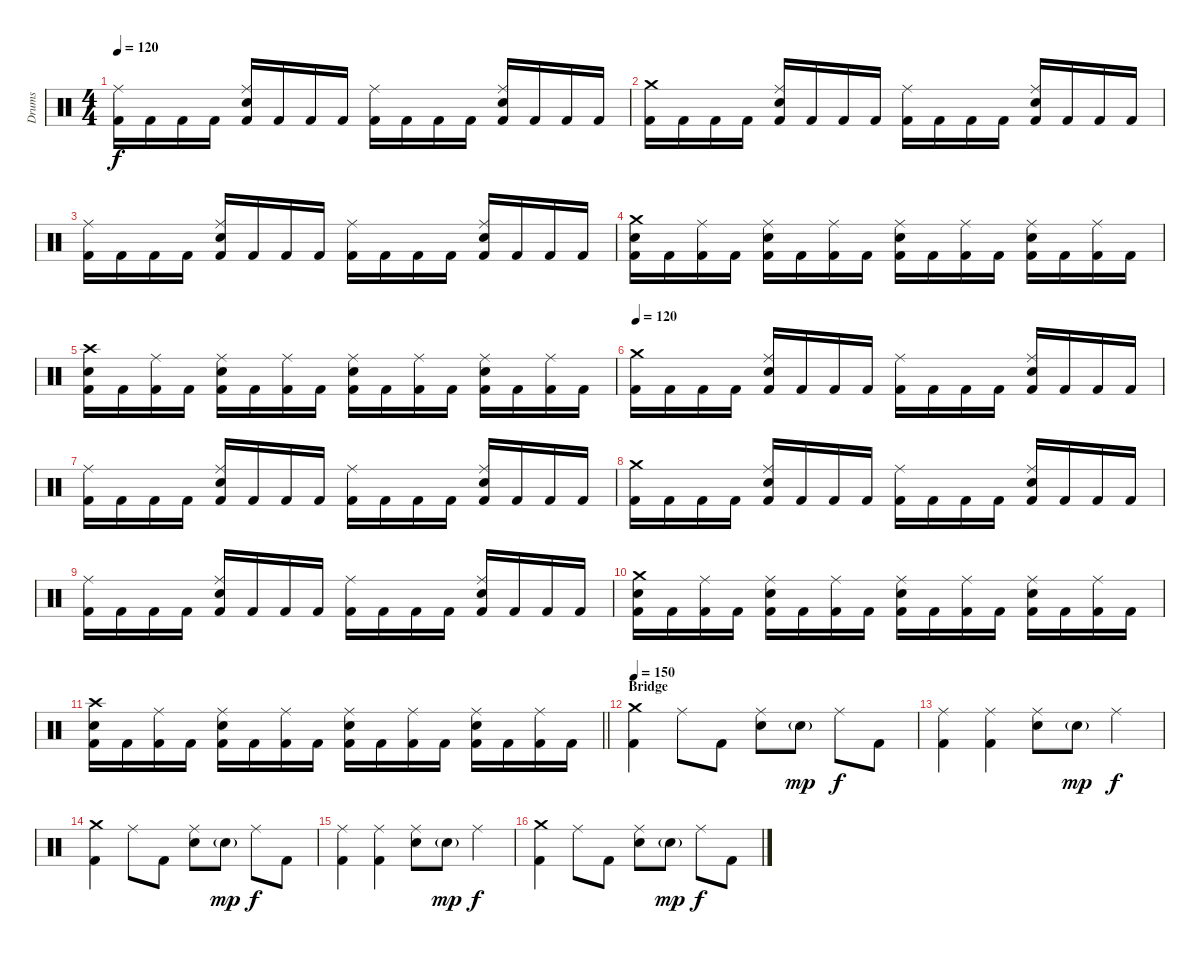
\track ("Drums" "Drums") {instrument percussion}
\staff {score}
\articulation defaults
\ts (4 4)
\tempo 120
\clef neutral
\ks c
("Kick (hit) 2" "Ride (middle)").16{dy f} "Kick (hit) 2".16 "Kick (hit) 2".16 "Kick (hit) 2".16 ("Kick (hit) 2" "Snare (hit) 2" "Ride (middle)").16 "Kick (hit) 2".16 "Kick (hit) 2".16 "Kick (hit) 2".16 ("Kick (hit) 2" "Ride (middle)").16 "Kick (hit) 2".16 "Kick (hit) 2".16 "Kick (hit) 2".16 ("Kick (hit) 2" "Snare (hit) 2" "Ride (middle)").16 "Kick (hit) 2".16 "Kick (hit) 2".16 "Kick (hit) 2".16 |
("Kick (hit) 2" "Crash medium (hit)").16 "Kick (hit) 2".16 "Kick (hit) 2".16 "Kick (hit) 2".16 ("Kick (hit) 2" "Snare (hit) 2" "Ride (middle)").16 "Kick (hit) 2".16 "Kick (hit) 2".16 "Kick (hit) 2".16 ("Kick (hit) 2" "Ride (middle)").16 "Kick (hit) 2".16 "Kick (hit) 2".16 "Kick (hit) 2".16 ("Kick (hit) 2" "Snare (hit) 2" "Ride (middle)").16 "Kick (hit) 2".16 "Kick (hit) 2".16 "Kick (hit) 2".16 |
("Kick (hit) 2" "Ride (middle)").16 "Kick (hit) 2".16 "Kick (hit) 2".16 "Kick (hit) 2".16 ("Kick (hit) 2" "Snare (hit) 2" "Ride (middle)").16 "Kick (hit) 2".16 "Kick (hit) 2".16 "Kick (hit) 2".16 ("Kick (hit) 2" "Ride (middle)").16 "Kick (hit) 2".16 "Kick (hit) 2".16 "Kick (hit) 2".16 ("Kick (hit) 2" "Snare (hit) 2" "Ride (middle)").16 "Kick (hit) 2".16 "Kick (hit) 2".16 "Kick (hit) 2".16 |
("Kick (hit) 2" "Snare (hit) 2" "Crash medium (hit)").16 "Kick (hit) 2".16 ("Kick (hit) 2" "Ride (middle)").16 "Kick (hit) 2".16 ("Kick (hit) 2" "Snare (hit) 2" "Ride (middle)").16 "Kick (hit) 2".16 ("Kick (hit) 2" "Ride (middle)").16 "Kick (hit) 2".16 ("Kick (hit) 2" "Snare (hit) 2" "Ride (middle)").16 "Kick (hit) 2".16 ("Kick (hit) 2" "Ride (middle)").16 "Kick (hit) 2".16 ("Kick (hit) 2" "Snare (hit) 2" "Ride (middle)").16 "Kick (hit) 2".16 ("Kick (hit) 2" "Ride (middle)").16 "Kick (hit) 2".16 |
("Kick (hit) 2" "Snare (hit) 2" "Crash high (hit)").16 "Kick (hit) 2".16 ("Kick (hit) 2" "Ride (middle)").16 "Kick (hit) 2".16 ("Kick (hit) 2" "Snare (hit) 2" "Ride (middle)").16 "Kick (hit) 2".16 ("Kick (hit) 2" "Ride (middle)").16 "Kick (hit) 2".16 ("Kick (hit) 2" "Snare (hit) 2" "Ride (middle)").16 "Kick (hit) 2".16 ("Kick (hit) 2" "Ride (middle)").16 "Kick (hit) 2".16 ("Kick (hit) 2" "Snare (hit) 2" "Ride (middle)").16 "Kick (hit) 2".16 ("Kick (hit) 2" "Ride (middle)").16 "Kick (hit) 2".16 |
\tempo 120
("Kick (hit) 2" "Crash medium (hit)").16 "Kick (hit) 2".16 "Kick (hit) 2".16 "Kick (hit) 2".16 ("Kick (hit) 2" "Snare (hit) 2" "Ride (middle)").16 "Kick (hit) 2".16 "Kick (hit) 2".16 "Kick (hit) 2".16 ("Kick (hit) 2" "Ride (middle)").16 "Kick (hit) 2".16 "Kick (hit) 2".16 "Kick (hit) 2".16 ("Kick (hit) 2" "Snare (hit) 2" "Ride (middle)").16 "Kick (hit) 2".16 "Kick (hit) 2".16 "Kick (hit) 2".16 |
("Kick (hit) 2" "Ride (middle)").16 "Kick (hit) 2".16 "Kick (hit) 2".16 "Kick (hit) 2".16 ("Kick (hit) 2" "Snare (hit) 2" "Ride (middle)").16 "Kick (hit) 2".16 "Kick (hit) 2".16 "Kick (hit) 2".16 ("Kick (hit) 2" "Ride (middle)").16 "Kick (hit) 2".16 "Kick (hit) 2".16 "Kick (hit) 2".16 ("Kick (hit) 2" "Snare (hit) 2" "Ride (middle)").16 "Kick (hit) 2".16 "Kick (hit) 2".16 "Kick (hit) 2".16 |
("Kick (hit) 2" "Crash medium (hit)").16 "Kick (hit) 2".16 "Kick (hit) 2".16 "Kick (hit) 2".16 ("Kick (hit) 2" "Snare (hit) 2" "Ride (middle)").16 "Kick (hit) 2".16 "Kick (hit) 2".16 "Kick (hit) 2".16 ("Kick (hit) 2" "Ride (middle)").16 "Kick (hit) 2".16 "Kick (hit) 2".16 "Kick (hit) 2".16 ("Kick (hit) 2" "Snare (hit) 2" "Ride (middle)").16 "Kick (hit) 2".16 "Kick (hit) 2".16 "Kick (hit) 2".16 |
("Kick (hit) 2" "Ride (middle)").16 "Kick (hit) 2".16 "Kick (hit) 2".16 "Kick (hit) 2".16 ("Kick (hit) 2" "Snare (hit) 2" "Ride (middle)").16 "Kick (hit) 2".16 "Kick (hit) 2".16 "Kick (hit) 2".16 ("Kick (hit) 2" "Ride (middle)").16 "Kick (hit) 2".16 "Kick (hit) 2".16 "Kick (hit) 2".16 ("Kick (hit) 2" "Snare (hit) 2" "Ride (middle)").16 "Kick (hit) 2".16 "Kick (hit) 2".16 "Kick (hit) 2".16 |
("Kick (hit) 2" "Snare (hit) 2" "Crash medium (hit)").16 "Kick (hit) 2".16 ("Kick (hit) 2" "Ride (middle)").16 "Kick (hit) 2".16 ("Kick (hit) 2" "Snare (hit) 2" "Ride (middle)").16 "Kick (hit) 2".16 ("Kick (hit) 2" "Ride (middle)").16 "Kick (hit) 2".16 ("Kick (hit) 2" "Snare (hit) 2" "Ride (middle)").16 "Kick (hit) 2".16 ("Kick (hit) 2" "Ride (middle)").16 "Kick (hit) 2".16 ("Kick (hit) 2" "Snare (hit) 2" "Ride (middle)").16 "Kick (hit) 2".16 ("Kick (hit) 2" "Ride (middle)").16 "Kick (hit) 2".16 |
\barLineRight lightlight
("Kick (hit) 2" "Snare (hit) 2" "Crash high (hit)").16 "Kick (hit) 2".16 ("Kick (hit) 2" "Ride (middle)").16 "Kick (hit) 2".16 ("Kick (hit) 2" "Snare (hit) 2" "Ride (middle)").16 "Kick (hit) 2".16 ("Kick (hit) 2" "Ride (middle)").16 "Kick (hit) 2".16 ("Kick (hit) 2" "Snare (hit) 2" "Ride (middle)").16 "Kick (hit) 2".16 ("Kick (hit) 2" "Ride (middle)").16 "Kick (hit) 2".16 ("Kick (hit) 2" "Snare (hit) 2" "Ride (middle)").16 "Kick (hit) 2".16 ("Kick (hit) 2" "Ride (middle)").16 "Kick (hit) 2".16 |
\section ("" "Bridge")
\tempo 150
("Kick (hit) 2" "Crash medium (hit)").4 "Ride (middle)".8 "Kick (hit) 2".8 ("Snare (hit) 2" "Ride (middle)").8 "Snare (hit) 2"{g}.8{dy mp} "Ride (middle)".8{dy f} "Kick (hit) 2".8 |
("Kick (hit) 2" "Ride (middle)").4 ("Kick (hit) 2" "Ride (middle)").4 ("Snare (hit) 2" "Ride (middle)").8 "Snare (hit) 2"{g}.8{dy mp} "Ride (middle)".4{dy f} |
("Kick (hit) 2" "Crash medium (hit)").4 "Ride (middle)".8 "Kick (hit) 2".8 ("Snare (hit) 2" "Ride (middle)").8 "Snare (hit) 2"{g}.8{dy mp} "Ride (middle)".8{dy f} "Kick (hit) 2".8 |
("Kick (hit) 2" "Ride (middle)").4 ("Kick (hit) 2" "Ride (middle)").4 ("Snare (hit) 2" "Ride (middle)").8 "Snare (hit) 2"{g}.8{dy mp} "Ride (middle)".4{dy f} |
("Kick (hit) 2" "Crash medium (hit)").4 "Ride (middle)".8 "Kick (hit) 2".8 ("Snare (hit) 2" "Ride (middle)").8 "Snare (hit) 2"{g}.8{dy mp} "Ride (middle)".8{dy f} "Kick (hit) 2".8
